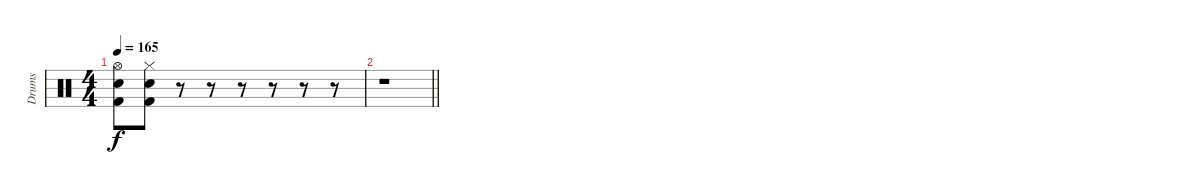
\track ("Drums" "Drums") {instrument percussion}
\staff {score}
\articulation defaults
\ts (4 4)
\tempo 165
\clef neutral
\ks c
("Hi-Hat (open)" "Electric Snare (hit)" "Kick (hit) 2").8{dy f} ("Hi-Hat (closed)" "Electric Snare (hit)" "Kick (hit) 2").8 r.8 r.8 r.8 r.8 r.8 r.8 |
\barLineRight lightlight
r.1
